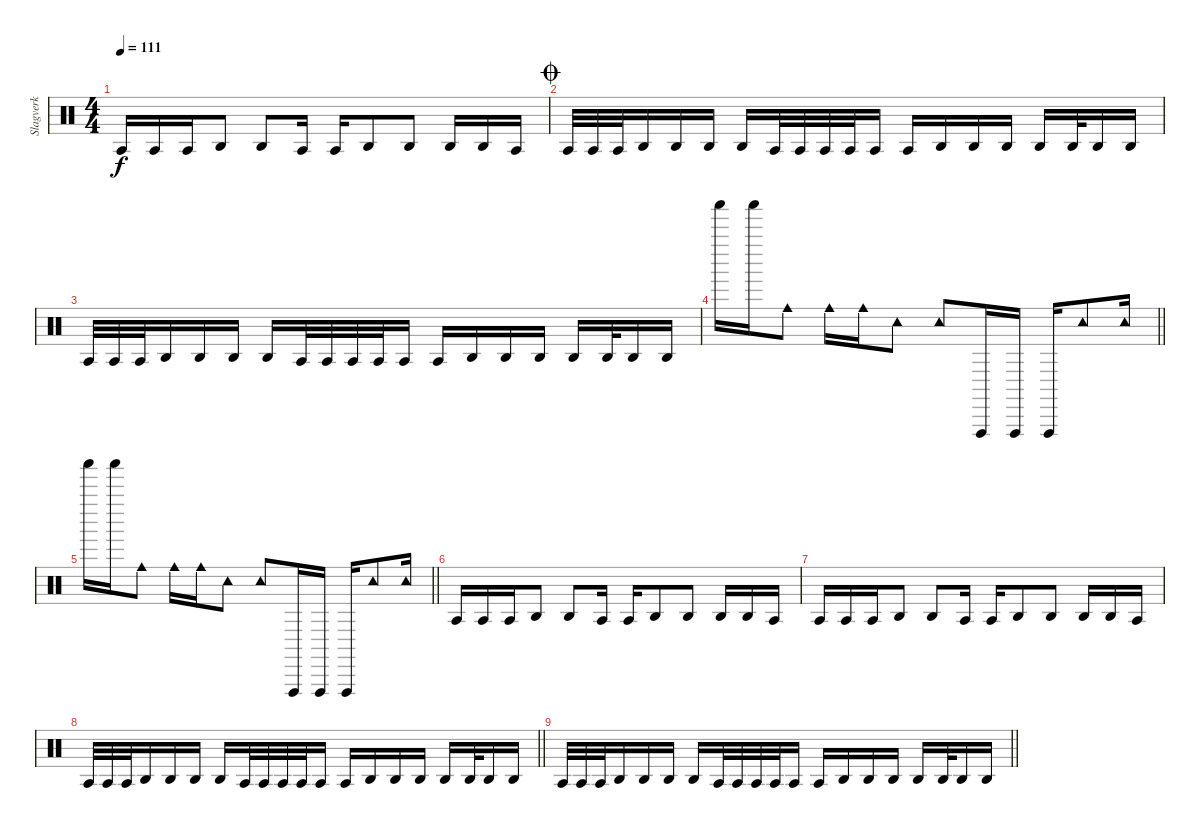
\track ("Slagverk" "Slagverk") {instrument percussion}
\staff {score}
\articulation defaults
\ts (4 4)
\tempo 111
\clef neutral
\ks c "Agogo tow (hit)".16{dy f} "Agogo tow (hit)".16 "Agogo tow (hit)".16 "Agogo high (hit)".8 "Agogo high (hit)".8 "Agogo tow (hit)".16 "Agogo tow (hit)".16 "Agogo high (hit)".8 "Agogo high (hit)".8 "Agogo high (hit)".16 "Agogo high (hit)".16 "Agogo tow (hit)".16
|
\jump coda "Agogo tow (hit)".32 "Agogo tow (hit)".32 "Agogo tow (hit)".32 "Agogo high (hit)".16 "Agogo high (hit)".16 "Agogo high (hit)".16 "Agogo high (hit)".16 "Agogo tow (hit)".32 "Agogo tow (hit)".32 "Agogo tow (hit)".32 "Agogo tow (hit)".32 "Agogo tow (hit)".16 "Agogo tow (hit)".16 "Agogo high (hit)".16 "Agogo high (hit)".16 "Agogo high (hit)".16 "Agogo high (hit)".16 "Agogo high (hit)".32 "Agogo high (hit)".16 "Agogo high (hit)".16
|
"Agogo tow (hit)".32 "Agogo tow (hit)".32 "Agogo tow (hit)".32 "Agogo high (hit)".16 "Agogo high (hit)".16 "Agogo high (hit)".16 "Agogo high (hit)".16 "Agogo tow (hit)".32 "Agogo tow (hit)".32 "Agogo tow (hit)".32 "Agogo tow (hit)".32 "Agogo tow (hit)".16 "Agogo tow (hit)".16 "Agogo high (hit)".16 "Agogo high (hit)".16 "Agogo high (hit)".16 "Agogo high (hit)".16 "Agogo high (hit)".32 "Agogo high (hit)".16 "Agogo high (hit)".16 |
\barLineRight lightlight "Shaker (hit)".16 "Shaker (hit)".16 "Cowbell medium (hit)".8 "Cowbell medium (hit)".16 "Cowbell medium (hit)".16 "Tambourine (hit)".8 "Tambourine (hit)".8 "Vibraslap (hit)".16 "Vibraslap (hit)".16 "Vibraslap (hit)".16 "Tambourine (hit)".8 "Tambourine (hit)".16
|
\barLineRight lightlight "Shaker (hit)".16 "Shaker (hit)".16 "Cowbell medium (hit)".8 "Cowbell medium (hit)".16 "Cowbell medium (hit)".16 "Tambourine (hit)".8 "Tambourine (hit)".8 "Vibraslap (hit)".16 "Vibraslap (hit)".16 "Vibraslap (hit)".16 "Tambourine (hit)".8 "Tambourine (hit)".16
|
"Agogo tow (hit)".16 "Agogo tow (hit)".16 "Agogo tow (hit)".16 "Agogo high (hit)".8 "Agogo high (hit)".8 "Agogo tow (hit)".16 "Agogo tow (hit)".16 "Agogo high (hit)".8 "Agogo high (hit)".8 "Agogo high (hit)".16 "Agogo high (hit)".16 "Agogo tow (hit)".16 |
"Agogo tow (hit)".16 "Agogo tow (hit)".16 "Agogo tow (hit)".16 "Agogo high (hit)".8 "Agogo high (hit)".8 "Agogo tow (hit)".16 "Agogo tow (hit)".16 "Agogo high (hit)".8 "Agogo high (hit)".8 "Agogo high (hit)".16 "Agogo high (hit)".16 "Agogo tow (hit)".16 |
\barLineRight lightlight "Agogo tow (hit)".32 "Agogo tow (hit)".32 "Agogo tow (hit)".32 "Agogo high (hit)".16 "Agogo high (hit)".16 "Agogo high (hit)".16 "Agogo high (hit)".16 "Agogo tow (hit)".32 "Agogo tow (hit)".32 "Agogo tow (hit)".32 "Agogo tow (hit)".32 "Agogo tow (hit)".16 "Agogo tow (hit)".16 "Agogo high (hit)".16 "Agogo high (hit)".16 "Agogo high (hit)".16 "Agogo high (hit)".16 "Agogo high (hit)".32 "Agogo high (hit)".16 "Agogo high (hit)".16
|
\barLineRight lightlight "Agogo tow (hit)".32 "Agogo tow (hit)".32 "Agogo tow (hit)".32 "Agogo high (hit)".16 "Agogo high (hit)".16 "Agogo high (hit)".16 "Agogo high (hit)".16 "Agogo tow (hit)".32 "Agogo tow (hit)".32 "Agogo tow (hit)".32 "Agogo tow (hit)".32 "Agogo tow (hit)".16 "Agogo tow (hit)".16 "Agogo high (hit)".16 "Agogo high (hit)".16 "Agogo high (hit)".16 "Agogo high (hit)".16 "Agogo high (hit)".32 "Agogo high (hit)".16 "Agogo high (hit)".16
